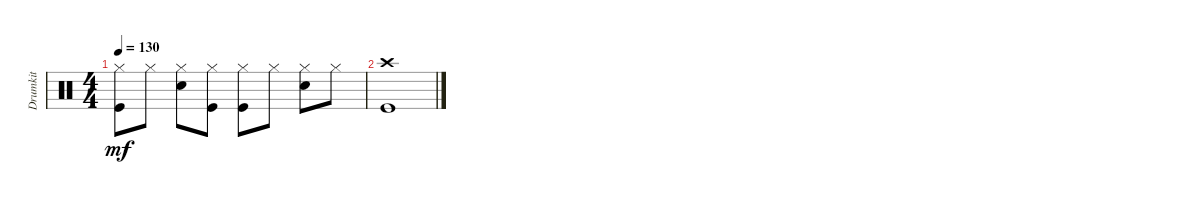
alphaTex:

\track ("Drumkit" "Drumkit") {instrument percussion}
\staff {score}
\articulation defaults
\ts (4 4)
\tempo 130
\clef neutral
\ks c
("Kick (hit)" "Hi-Hat (closed)").8{dy mf} "Hi-Hat (closed)".8 ("Snare (hit) 2" "Hi-Hat (closed)").8 ("Kick (hit)" "Hi-Hat (closed)").8 ("Kick (hit)" "Hi-Hat (closed)").8 "Hi-Hat (closed)".8 ("Snare (hit) 2" "Hi-Hat (closed)").8 "Hi-Hat (closed)".8 |
("Crash high (hit)" "Kick (hit)").1
